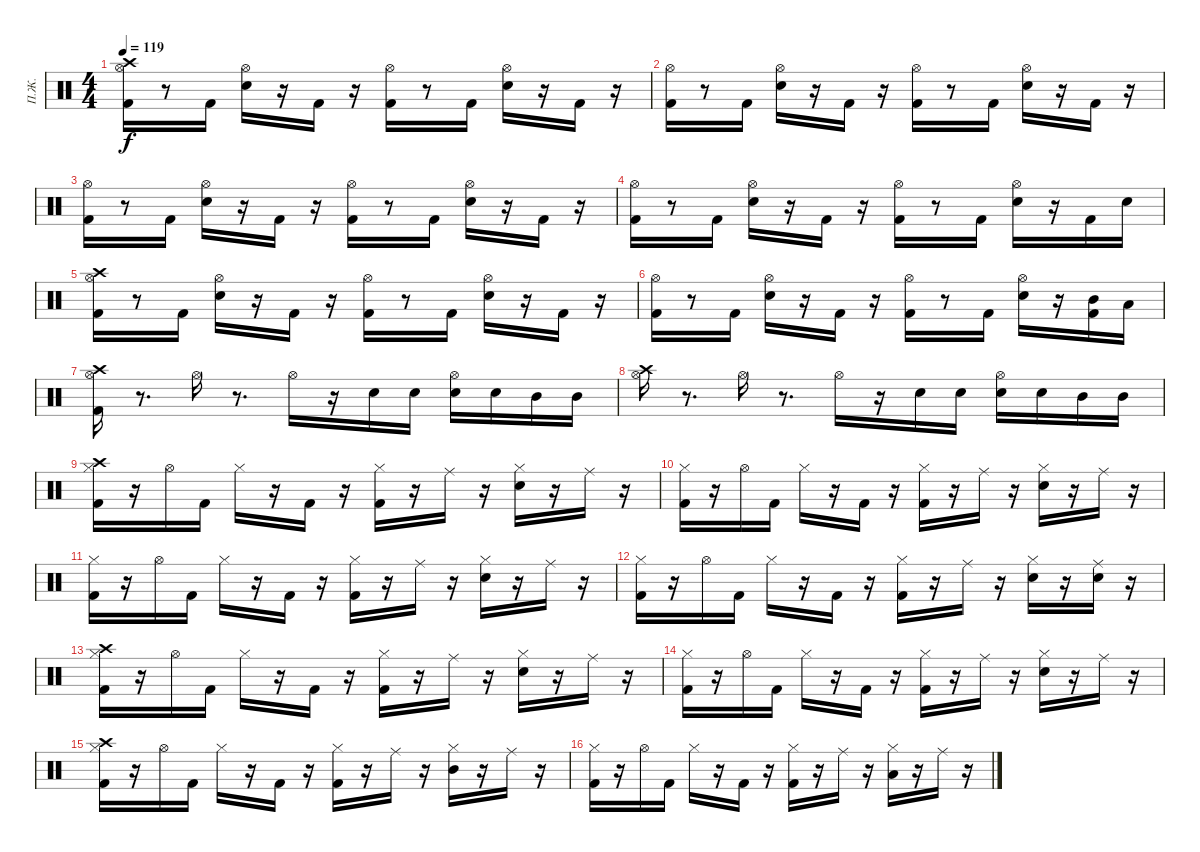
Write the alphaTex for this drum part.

\track ("П.Ж." "П.Ж.") {instrument percussion}
\staff {score}
\articulation defaults
\ts (4 4)
\tempo 119
\clef neutral
\ks c
("Hi-Hat (open)" "Crash high (hit)" "Kick (hit) 2").16{dy f} r.8 "Kick (hit) 2".16 ("Electric Snare (hit)" "Hi-Hat (open)").16 r.16 "Kick (hit) 2".16 r.16 ("Hi-Hat (open)" "Kick (hit) 2").16 r.8 "Kick (hit) 2".16 ("Hi-Hat (open)" "Electric Snare (hit)").16 r.16 "Kick (hit) 2".16 r.16 |
("Hi-Hat (open)" "Kick (hit) 2").16 r.8 "Kick (hit) 2".16 ("Electric Snare (hit)" "Hi-Hat (open)").16 r.16 "Kick (hit) 2".16 r.16 ("Kick (hit) 2" "Hi-Hat (open)").16 r.8 "Kick (hit) 2".16 ("Electric Snare (hit)" "Hi-Hat (open)").16 r.16 "Kick (hit) 2".16 r.16 |
("Kick (hit) 2" "Hi-Hat (open)").16 r.8 "Kick (hit) 2".16 ("Hi-Hat (open)" "Electric Snare (hit)").16 r.16 "Kick (hit) 2".16 r.16 ("Hi-Hat (open)" "Kick (hit) 2").16 r.8 "Kick (hit) 2".16 ("Electric Snare (hit)" "Hi-Hat (open)").16 r.16 "Kick (hit) 2".16 r.16 |
("Kick (hit) 2" "Hi-Hat (open)").16 r.8 "Kick (hit) 2".16 ("Hi-Hat (open)" "Electric Snare (hit)").16 r.16 "Kick (hit) 2".16 r.16 ("Kick (hit) 2" "Hi-Hat (open)").16 r.8 "Kick (hit) 2".16 ("Electric Snare (hit)" "Hi-Hat (open)").16 r.16 "Kick (hit) 2".16 "Electric Snare (hit)".16 |
("Hi-Hat (open)" "Crash high (hit)" "Kick (hit) 2").16 r.8 "Kick (hit) 2".16 ("Hi-Hat (open)" "Electric Snare (hit)").16 r.16 "Kick (hit) 2".16 r.16 ("Kick (hit) 2" "Hi-Hat (open)").16 r.8 "Kick (hit) 2".16 ("Electric Snare (hit)" "Hi-Hat (open)").16 r.16 "Kick (hit) 2".16 r.16 |
("Hi-Hat (open)" "Kick (hit) 2").16 r.8 "Kick (hit) 2".16 ("Hi-Hat (open)" "Electric Snare (hit)").16 r.16 "Kick (hit) 2".16 r.16 ("Hi-Hat (open)" "Kick (hit) 2").16 r.8 "Kick (hit) 2".16 ("Electric Snare (hit)" "Hi-Hat (open)").16 r.16 ("Mid Tom (hit)" "Kick (hit) 2").16 "Low Tom (hit)".16 |
("Kick (hit) 2" "Crash high (hit)" "Hi-Hat (open)").16 r.8{d} "Hi-Hat (open)".16 r.8{d} "Hi-Hat (open)".16 r.16 "Electric Snare (hit)".16 "Electric Snare (hit)".16 ("Electric Snare (hit)" "Hi-Hat (open)").16 "Electric Snare (hit)".16 "Mid Tom (hit)".16 "Mid Tom (hit)".16 |
("Crash high (hit)" "Hi-Hat (open)").16 r.8{d} "Hi-Hat (open)".16 r.8{d} "Hi-Hat (open)".16 r.16 "Electric Snare (hit)".16 "Electric Snare (hit)".16 ("Hi-Hat (open)" "Electric Snare (hit)").16 "Electric Snare (hit)".16 "Mid Tom (hit)".16 "Mid Tom (hit)".16 |
("Kick (hit) 2" "Hi-Hat (closed)" "Crash high (hit)").16 r.16 "Hi-Hat (open)".16 "Kick (hit) 2".16 "Hi-Hat (closed)".16 r.16 "Kick (hit) 2".16 r.16 ("Kick (hit) 2" "Hi-Hat (closed)").16 r.16 "Ride (middle)".16 r.16 ("Hi-Hat (closed)" "Electric Snare (hit)").16 r.16 "Ride (middle)".16 r.16 |
("Kick (hit) 2" "Hi-Hat (closed)").16 r.16 "Hi-Hat (open)".16 "Kick (hit) 2".16 "Hi-Hat (closed)".16 r.16 "Kick (hit) 2".16 r.16 ("Kick (hit) 2" "Hi-Hat (closed)").16 r.16 "Ride (middle)".16 r.16 ("Hi-Hat (closed)" "Electric Snare (hit)").16 r.16 "Ride (middle)".16 r.16 |
("Kick (hit) 2" "Hi-Hat (closed)").16 r.16 "Hi-Hat (open)".16 "Kick (hit) 2".16 "Hi-Hat (closed)".16 r.16 "Kick (hit) 2".16 r.16 ("Kick (hit) 2" "Hi-Hat (closed)").16 r.16 "Ride (middle)".16 r.16 ("Hi-Hat (closed)" "Electric Snare (hit)").16 r.16 "Ride (middle)".16 r.16 |
("Kick (hit) 2" "Hi-Hat (closed)").16 r.16 "Hi-Hat (open)".16 "Kick (hit) 2".16 "Hi-Hat (closed)".16 r.16 "Kick (hit) 2".16 r.16 ("Kick (hit) 2" "Hi-Hat (closed)").16 r.16 "Ride (middle)".16 r.16 ("Hi-Hat (closed)" "Electric Snare (hit)").16 r.16 ("Ride (middle)" "Electric Snare (hit)").16 r.16 |
("Kick (hit) 2" "Hi-Hat (closed)" "Crash high (hit)").16 r.16 "Hi-Hat (open)".16 "Kick (hit) 2".16 "Hi-Hat (closed)".16 r.16 "Kick (hit) 2".16 r.16 ("Kick (hit) 2" "Hi-Hat (closed)").16 r.16 "Ride (middle)".16 r.16 ("Hi-Hat (closed)" "Electric Snare (hit)").16 r.16 "Ride (middle)".16 r.16 |
("Kick (hit) 2" "Hi-Hat (closed)").16 r.16 "Hi-Hat (open)".16 "Kick (hit) 2".16 "Hi-Hat (closed)".16 r.16 "Kick (hit) 2".16 r.16 ("Kick (hit) 2" "Hi-Hat (closed)").16 r.16 "Ride (middle)".16 r.16 ("Hi-Hat (closed)" "Electric Snare (hit)").16 r.16 "Ride (middle)".16 r.16 |
("Kick (hit) 2" "Hi-Hat (closed)" "Crash high (hit)").16 r.16 "Hi-Hat (open)".16 "Kick (hit) 2".16 "Hi-Hat (closed)".16 r.16 "Kick (hit) 2".16 r.16 ("Kick (hit) 2" "Hi-Hat (closed)").16 r.16 "Ride (middle)".16 r.16 ("Hi-Hat (closed)" "Mid Tom (hit)").16 r.16 "Ride (middle)".16 r.16 |
("Kick (hit) 2" "Hi-Hat (closed)").16 r.16 "Hi-Hat (open)".16 "Kick (hit) 2".16 "Hi-Hat (closed)".16 r.16 "Kick (hit) 2".16 r.16 ("Kick (hit) 2" "Hi-Hat (closed)").16 r.16 "Ride (middle)".16 r.16 ("Hi-Hat (closed)" "Low Floor Tom (hit)").16 r.16 "Ride (middle)".16 r.16
